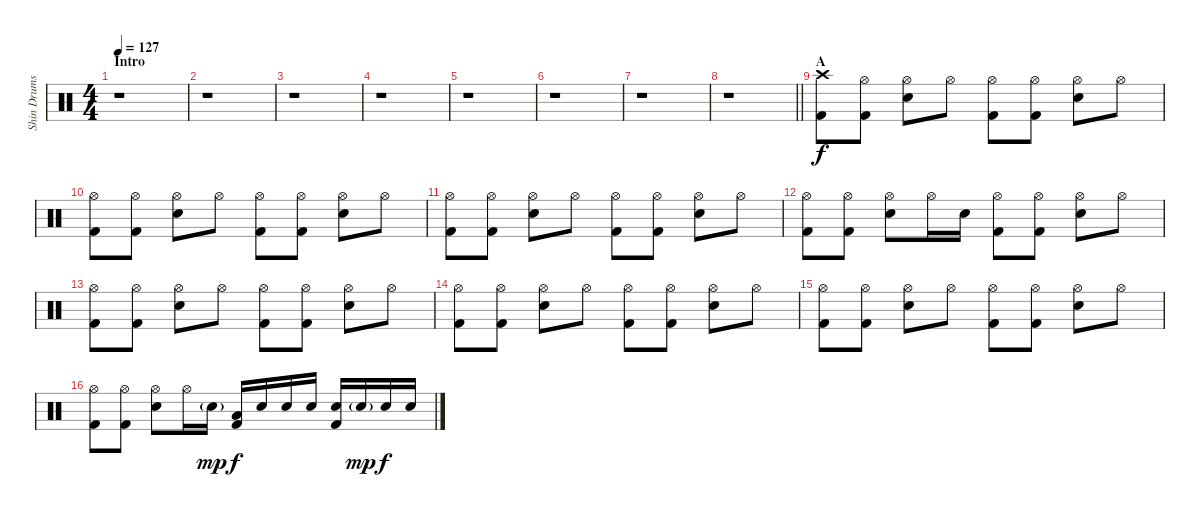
\track ("Shin Drums" "Shin Drums") {instrument percussion}
\staff {score}
\articulation defaults
\ts (4 4)
\section ("" "Intro")
\tempo 127
\clef neutral
\ks c
r.1{dy f} |
r.1 |
r.1 |
r.1 |
r.1 |
r.1 |
r.1 |
\barLineRight lightlight
r.1 |
\section ("" "A")
("Crash high (hit)" "Kick (hit) 2").8 ("Hi-Hat (open)" "Kick (hit) 2").8 ("Hi-Hat (open)" "Snare (hit) 2").8 "Hi-Hat (open)".8 ("Hi-Hat (open)" "Kick (hit) 2").8 ("Hi-Hat (open)" "Kick (hit) 2").8 ("Hi-Hat (open)" "Snare (hit) 2").8 "Hi-Hat (open)".8 |
("Hi-Hat (open)" "Kick (hit) 2").8 ("Hi-Hat (open)" "Kick (hit) 2").8 ("Hi-Hat (open)" "Snare (hit) 2").8 "Hi-Hat (open)".8 ("Hi-Hat (open)" "Kick (hit) 2").8 ("Hi-Hat (open)" "Kick (hit) 2").8 ("Hi-Hat (open)" "Snare (hit) 2").8 "Hi-Hat (open)".8 |
("Hi-Hat (open)" "Kick (hit) 2").8 ("Hi-Hat (open)" "Kick (hit) 2").8 ("Hi-Hat (open)" "Snare (hit) 2").8 "Hi-Hat (open)".8 ("Hi-Hat (open)" "Kick (hit) 2").8 ("Hi-Hat (open)" "Kick (hit) 2").8 ("Hi-Hat (open)" "Snare (hit) 2").8 "Hi-Hat (open)".8 |
("Hi-Hat (open)" "Kick (hit) 2").8 ("Hi-Hat (open)" "Kick (hit) 2").8 ("Hi-Hat (open)" "Snare (hit) 2").8 "Hi-Hat (open)".16 "Snare (hit) 2".16 ("Hi-Hat (open)" "Kick (hit) 2").8 ("Hi-Hat (open)" "Kick (hit) 2").8 ("Hi-Hat (open)" "Snare (hit) 2").8 "Hi-Hat (open)".8 |
("Hi-Hat (open)" "Kick (hit) 2").8 ("Hi-Hat (open)" "Kick (hit) 2").8 ("Hi-Hat (open)" "Snare (hit) 2").8 "Hi-Hat (open)".8 ("Hi-Hat (open)" "Kick (hit) 2").8 ("Hi-Hat (open)" "Kick (hit) 2").8 ("Hi-Hat (open)" "Snare (hit) 2").8 "Hi-Hat (open)".8 |
("Hi-Hat (open)" "Kick (hit) 2").8 ("Hi-Hat (open)" "Kick (hit) 2").8 ("Hi-Hat (open)" "Snare (hit) 2").8 "Hi-Hat (open)".8 ("Hi-Hat (open)" "Kick (hit) 2").8 ("Hi-Hat (open)" "Kick (hit) 2").8 ("Hi-Hat (open)" "Snare (hit) 2").8 "Hi-Hat (open)".8 |
("Hi-Hat (open)" "Kick (hit) 2").8 ("Hi-Hat (open)" "Kick (hit) 2").8 ("Hi-Hat (open)" "Snare (hit) 2").8 "Hi-Hat (open)".8 ("Hi-Hat (open)" "Kick (hit) 2").8 ("Hi-Hat (open)" "Kick (hit) 2").8 ("Hi-Hat (open)" "Snare (hit) 2").8 "Hi-Hat (open)".8 |
("Hi-Hat (open)" "Kick (hit) 2").8 ("Hi-Hat (open)" "Kick (hit) 2").8 ("Hi-Hat (open)" "Snare (hit) 2").8 "Hi-Hat (open)".16 "Snare (hit) 2"{g}.16{dy mp} ("Low Tom (hit)" "Kick (hit) 2").16{dy f} "Snare (hit) 2".16 "Snare (hit) 2".16 "Snare (hit) 2".16 ("Snare (hit) 2" "Kick (hit) 2").16 "Snare (hit) 2"{g}.16{dy mp} "Snare (hit) 2".16{dy f} "Snare (hit) 2".16
